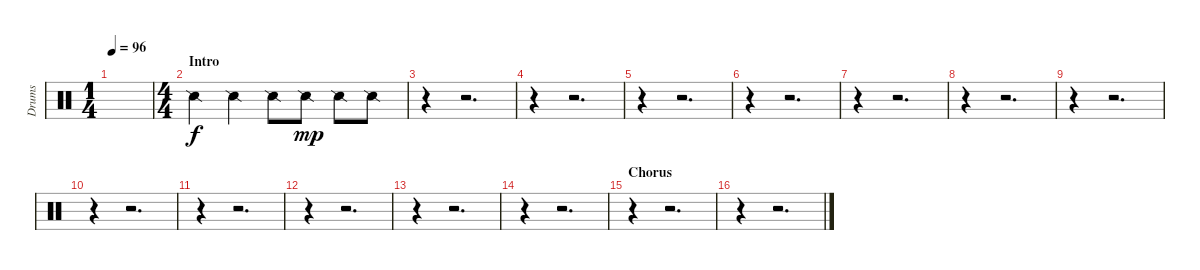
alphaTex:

\track ("Drums" "Drums") {instrument percussion}
\staff {score}
\articulation defaults
\ts (1 4)
\tempo 96
\clef neutral
\ks c
|
\ts (4 4)
\section ("" "Intro")
"Snare (side stick) 2".4 "Snare (side stick) 2".4 "Snare (side stick) 2".8 "Snare (side stick) 2".8{dy mp} "Snare (side stick) 2".8 "Snare (side stick) 2".8 |
r.4 r.2{d} |
r.4 r.2{d} |
r.4 r.2{d} |
r.4 r.2{d} |
r.4 r.2{d} |
r.4 r.2{d} |
r.4 r.2{d} |
r.4 r.2{d} |
r.4 r.2{d} |
r.4 r.2{d} |
r.4 r.2{d} |
r.4 r.2{d} |
\section ("" "Chorus")
r.4 r.2{d} |
r.4 r.2{d}
